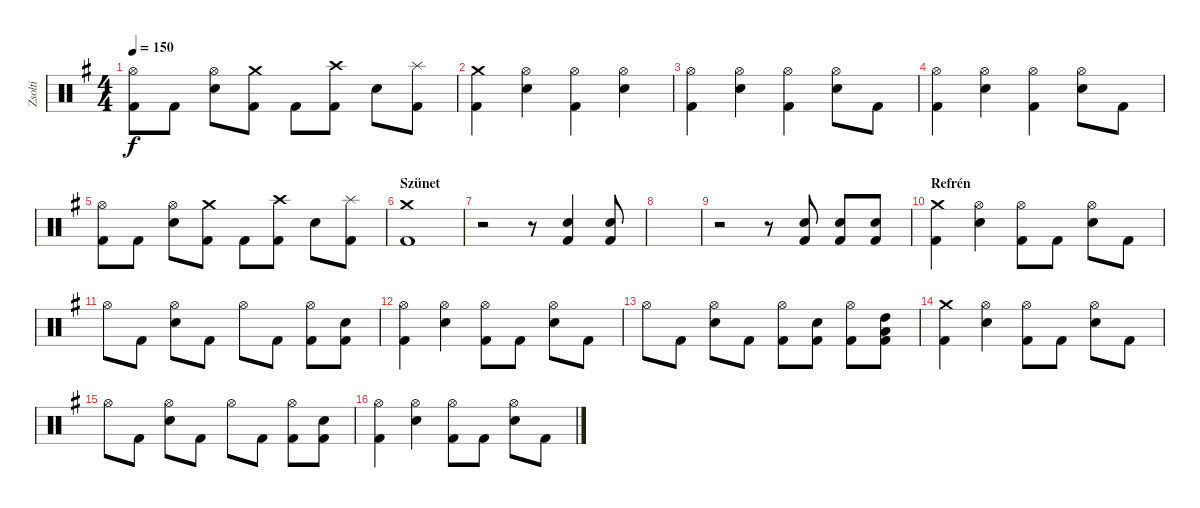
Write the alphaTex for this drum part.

\track ("Zsolti" "Zsolti") {instrument percussion}
\staff {score}
\articulation defaults
\ts (4 4)
\tempo 150
\clef neutral
\ks eminor
("Hi-Hat (open)" "Kick (hit) 2").8{dy f} "Kick (hit) 2".8 ("Hi-Hat (open)" "Snare (hit) 2").8 ("Crash medium (hit)" "Kick (hit) 2").8 "Kick (hit) 2".8 ("Crash high (hit)" "Kick (hit) 2").8 "Snare (hit) 2".8 ("Splash (hit)" "Kick (hit) 2").8 |
("Crash medium (hit)" "Kick (hit) 2").4 ("Hi-Hat (open)" "Snare (hit) 2").4 ("Hi-Hat (open)" "Kick (hit) 2").4 ("Hi-Hat (open)" "Snare (hit) 2").4 |
("Hi-Hat (open)" "Kick (hit) 2").4 ("Hi-Hat (open)" "Snare (hit) 2").4 ("Hi-Hat (open)" "Kick (hit) 2").4 ("Hi-Hat (open)" "Snare (hit) 2").8 "Kick (hit) 2".8 |
("Hi-Hat (open)" "Kick (hit) 2").4 ("Hi-Hat (open)" "Snare (hit) 2").4 ("Hi-Hat (open)" "Kick (hit) 2").4 ("Hi-Hat (open)" "Snare (hit) 2").8 "Kick (hit) 2".8 |
("Hi-Hat (open)" "Kick (hit) 2").8 "Kick (hit) 2".8 ("Hi-Hat (open)" "Snare (hit) 2").8 ("Crash medium (hit)" "Kick (hit) 2").8 "Kick (hit) 2".8 ("Crash high (hit)" "Kick (hit) 2").8 "Snare (hit) 2".8 ("Splash (hit)" "Kick (hit) 2").8 |
\section ("" "Szünet")
("Crash medium (hit)" "Kick (hit) 2").1 |
r.2 r.8 ("Snare (hit) 2" "Kick (hit) 2").4 ("Snare (hit) 2" "Kick (hit) 2").8 |
|
r.2 r.8 ("Snare (hit) 2" "Kick (hit) 2").8 ("Snare (hit) 2" "Kick (hit) 2").8 ("Snare (hit) 2" "Kick (hit) 2").8 |
\section ("" "Refrén")
("Crash medium (hit)" "Kick (hit) 2").4 ("Hi-Hat (open)" "Snare (hit) 2").4 ("Hi-Hat (open)" "Kick (hit) 2").8 "Kick (hit) 2".8 ("Hi-Hat (open)" "Snare (hit) 2").8 "Kick (hit) 2".8 |
"Hi-Hat (open)".8 "Kick (hit) 2".8 ("Hi-Hat (open)" "Snare (hit) 2").8 "Kick (hit) 2".8 "Hi-Hat (open)".8 "Kick (hit) 2".8 ("Hi-Hat (open)" "Kick (hit) 2").8 ("Snare (hit) 2" "Kick (hit) 2").8 |
("Hi-Hat (open)" "Kick (hit) 2").4 ("Hi-Hat (open)" "Snare (hit) 2").4 ("Hi-Hat (open)" "Kick (hit) 2").8 "Kick (hit) 2".8 ("Hi-Hat (open)" "Snare (hit) 2").8 "Kick (hit) 2".8 |
"Hi-Hat (open)".8 "Kick (hit) 2".8 ("Hi-Hat (open)" "Snare (hit) 2").8 "Kick (hit) 2".8 ("Hi-Hat (open)" "Kick (hit) 2").8 ("Snare (hit) 2" "Kick (hit) 2").8 ("Hi-Hat (open)" "Kick (hit) 2").8 ("High Tom (hit)" "Low Tom (hit)" "Kick (hit) 2").8 |
("Crash medium (hit)" "Kick (hit) 2").4 ("Hi-Hat (open)" "Snare (hit) 2").4 ("Hi-Hat (open)" "Kick (hit) 2").8 "Kick (hit) 2".8 ("Hi-Hat (open)" "Snare (hit) 2").8 "Kick (hit) 2".8 |
"Hi-Hat (open)".8 "Kick (hit) 2".8 ("Hi-Hat (open)" "Snare (hit) 2").8 "Kick (hit) 2".8 "Hi-Hat (open)".8 "Kick (hit) 2".8 ("Hi-Hat (open)" "Kick (hit) 2").8 ("Snare (hit) 2" "Kick (hit) 2").8 |
("Hi-Hat (open)" "Kick (hit) 2").4 ("Hi-Hat (open)" "Snare (hit) 2").4 ("Hi-Hat (open)" "Kick (hit) 2").8 "Kick (hit) 2".8 ("Hi-Hat (open)" "Snare (hit) 2").8 "Kick (hit) 2".8
